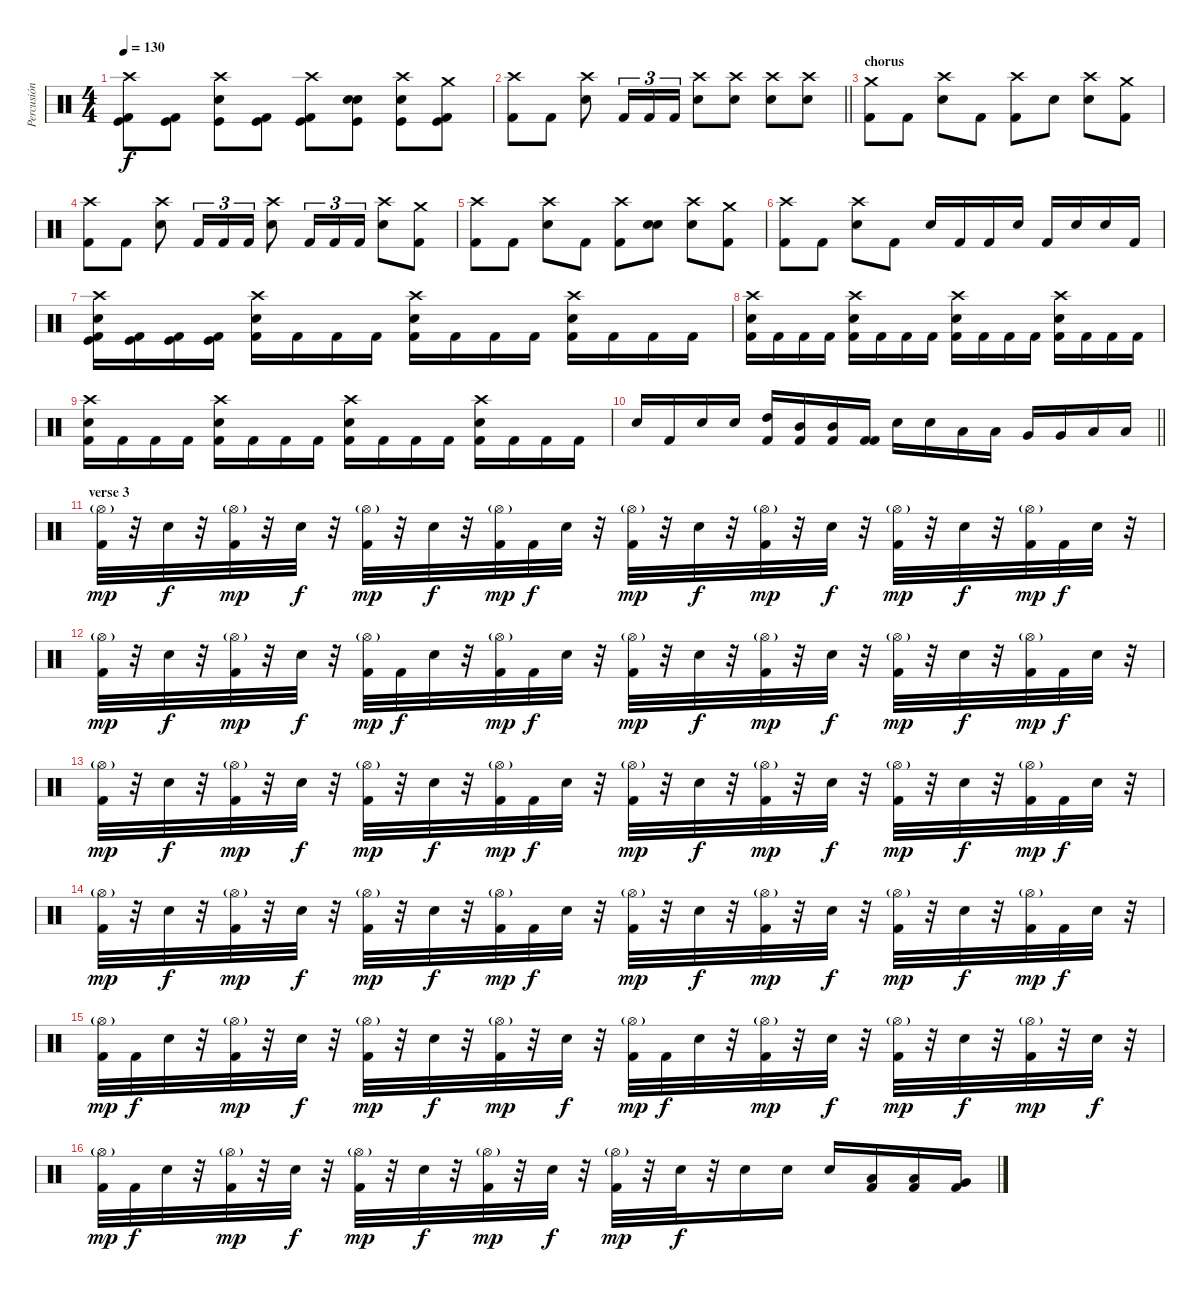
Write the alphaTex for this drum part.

\track ("Percusión" "Percusión") {instrument percussion}
\staff {score}
\articulation defaults
\ts (4 4)
\tempo 130
\clef neutral
\ks c
("Crash high (hit)" "Kick (hit)" "Kick (hit) 2").8{dy f} ("Kick (hit)" "Kick (hit) 2").8 ("Crash high (hit)" "Kick (hit)" "Electric Snare (hit)").8 ("Kick (hit)" "Kick (hit) 2").8 ("Crash high (hit)" "Kick (hit)" "Kick (hit) 2").8 ("Snare (hit)" "Kick (hit)" "Electric Snare (hit)").8 ("Crash high (hit)" "Kick (hit)" "Electric Snare (hit)").8 ("Crash medium (hit)" "Kick (hit)" "Kick (hit) 2").8 |
\barLineRight lightlight
("Crash high (hit)" "Kick (hit) 2").8 "Kick (hit) 2".8 ("Crash high (hit)" "Electric Snare (hit)").8 "Kick (hit) 2".16{tu (3 2)} "Kick (hit) 2".16{tu (3 2)} "Kick (hit) 2".16{tu (3 2)} ("Crash high (hit)" "Electric Snare (hit)").8 ("Crash high (hit)" "Electric Snare (hit)").8 ("Crash high (hit)" "Electric Snare (hit)").8 ("Crash high (hit)" "Electric Snare (hit)").8 |
\section ("" "chorus")
("Crash medium (hit)" "Kick (hit) 2").8 "Kick (hit) 2".8 ("Crash high (hit)" "Electric Snare (hit)").8 "Kick (hit) 2".8 ("Crash high (hit)" "Kick (hit) 2").8 "Electric Snare (hit)".8 ("Crash high (hit)" "Electric Snare (hit)").8 ("Crash medium (hit)" "Kick (hit) 2").8 |
("Crash high (hit)" "Kick (hit) 2").8 "Kick (hit) 2".8 ("Crash high (hit)" "Electric Snare (hit)").8 "Kick (hit) 2".16{tu (3 2)} "Kick (hit) 2".16{tu (3 2)} "Kick (hit) 2".16{tu (3 2)} ("Crash high (hit)" "Electric Snare (hit)").8 "Kick (hit) 2".16{tu (3 2)} "Kick (hit) 2".16{tu (3 2)} "Kick (hit) 2".16{tu (3 2)} ("Crash high (hit)" "Electric Snare (hit)").8 ("Crash medium (hit)" "Kick (hit) 2").8 |
("Crash high (hit)" "Kick (hit) 2").8 "Kick (hit) 2".8 ("Crash high (hit)" "Electric Snare (hit)").8 "Kick (hit) 2".8 ("Crash high (hit)" "Kick (hit) 2").8 ("Snare (hit)" "Electric Snare (hit)").8 ("Crash high (hit)" "Electric Snare (hit)").8 ("Crash medium (hit)" "Kick (hit) 2").8 |
("Crash high (hit)" "Kick (hit) 2").8 "Kick (hit) 2".8 ("Crash high (hit)" "Electric Snare (hit)").8 "Kick (hit) 2".8 "Electric Snare (hit)".16 "Kick (hit) 2".16 "Kick (hit) 2".16 "Electric Snare (hit)".16 "Kick (hit) 2".16 "Electric Snare (hit)".16 "Electric Snare (hit)".16 "Kick (hit) 2".16 |
("Crash high (hit)" "Electric Snare (hit)" "Kick (hit) 2" "Kick (hit)").16 ("Kick (hit) 2" "Kick (hit)").16 ("Kick (hit) 2" "Kick (hit)").16 ("Kick (hit) 2" "Kick (hit)").16 ("Crash high (hit)" "Electric Snare (hit)" "Kick (hit) 2").16 "Kick (hit) 2".16 "Kick (hit) 2".16 "Kick (hit) 2".16 ("Crash high (hit)" "Electric Snare (hit)" "Kick (hit) 2").16 "Kick (hit) 2".16 "Kick (hit) 2".16 "Kick (hit) 2".16 ("Crash high (hit)" "Electric Snare (hit)" "Kick (hit) 2").16 "Kick (hit) 2".16 "Kick (hit) 2".16 "Kick (hit) 2".16 |
("Crash high (hit)" "Electric Snare (hit)" "Kick (hit) 2").16 "Kick (hit) 2".16 "Kick (hit) 2".16 "Kick (hit) 2".16 ("Crash high (hit)" "Electric Snare (hit)" "Kick (hit) 2").16 "Kick (hit) 2".16 "Kick (hit) 2".16 "Kick (hit) 2".16 ("Crash high (hit)" "Electric Snare (hit)" "Kick (hit) 2").16 "Kick (hit) 2".16 "Kick (hit) 2".16 "Kick (hit) 2".16 ("Crash high (hit)" "Electric Snare (hit)" "Kick (hit) 2").16 "Kick (hit) 2".16 "Kick (hit) 2".16 "Kick (hit) 2".16 |
("Crash high (hit)" "Electric Snare (hit)" "Kick (hit) 2").16 "Kick (hit) 2".16 "Kick (hit) 2".16 "Kick (hit) 2".16 ("Crash high (hit)" "Electric Snare (hit)" "Kick (hit) 2").16 "Kick (hit) 2".16 "Kick (hit) 2".16 "Kick (hit) 2".16 ("Crash high (hit)" "Electric Snare (hit)" "Kick (hit) 2").16 "Kick (hit) 2".16 "Kick (hit) 2".16 "Kick (hit) 2".16 ("Crash high (hit)" "Electric Snare (hit)" "Kick (hit) 2").16 "Kick (hit) 2".16 "Kick (hit) 2".16 "Kick (hit) 2".16 |
\barLineRight lightlight "Electric Snare (hit)".16 "Kick (hit) 2".16 "Electric Snare (hit)".16 "Electric Snare (hit)".16
("High Tom (hit)" "Kick (hit) 2").16 ("Mid Tom (hit)" "Kick (hit) 2").16 ("Mid Tom (hit)" "Kick (hit) 2").16 ("Kick (hit) 2" "Kick (hit) 2").16 "Electric Snare (hit)".16 "Electric Snare (hit)".16 "Low Tom (hit)".16 "Low Tom (hit)".16 "Very Low Tom (hit)".16 "Very Low Tom (hit)".16 "Low Floor Tom (hit)".16 "Low Floor Tom (hit)".16 |
\section ("" "verse 3")
("Hi-Hat (open)"{g} "Kick (hit) 2").32{dy mp} r.32 "Electric Snare (hit)".32{dy f} r.32 ("Hi-Hat (open)"{g} "Kick (hit) 2").32{dy mp} r.32 "Electric Snare (hit)".32{dy f} r.32 ("Hi-Hat (open)"{g} "Kick (hit) 2").32{dy mp} r.32 "Electric Snare (hit)".32{dy f} r.32 ("Hi-Hat (open)"{g} "Kick (hit) 2").32{dy mp} "Kick (hit) 2".32{dy f} "Electric Snare (hit)".32 r.32 ("Hi-Hat (open)"{g} "Kick (hit) 2").32{dy mp} r.32 "Electric Snare (hit)".32{dy f} r.32 ("Hi-Hat (open)"{g} "Kick (hit) 2").32{dy mp} r.32 "Electric Snare (hit)".32{dy f} r.32 ("Hi-Hat (open)"{g} "Kick (hit) 2").32{dy mp} r.32 "Electric Snare (hit)".32{dy f} r.32 ("Hi-Hat (open)"{g} "Kick (hit) 2").32{dy mp} "Kick (hit) 2".32{dy f} "Electric Snare (hit)".32 r.32 |
("Hi-Hat (open)"{g} "Kick (hit) 2").32{dy mp} r.32 "Electric Snare (hit)".32{dy f} r.32 ("Hi-Hat (open)"{g} "Kick (hit) 2").32{dy mp} r.32 "Electric Snare (hit)".32{dy f} r.32 ("Hi-Hat (open)"{g} "Kick (hit) 2").32{dy mp} "Kick (hit) 2".32{dy f} "Electric Snare (hit)".32 r.32 ("Hi-Hat (open)"{g} "Kick (hit) 2").32{dy mp} "Kick (hit) 2".32{dy f} "Electric Snare (hit)".32 r.32 ("Hi-Hat (open)"{g} "Kick (hit) 2").32{dy mp} r.32 "Electric Snare (hit)".32{dy f} r.32 ("Hi-Hat (open)"{g} "Kick (hit) 2").32{dy mp} r.32 "Electric Snare (hit)".32{dy f} r.32 ("Hi-Hat (open)"{g} "Kick (hit) 2").32{dy mp} r.32 "Electric Snare (hit)".32{dy f} r.32 ("Hi-Hat (open)"{g} "Kick (hit) 2").32{dy mp} "Kick (hit) 2".32{dy f} "Electric Snare (hit)".32 r.32 |
("Hi-Hat (open)"{g} "Kick (hit) 2").32{dy mp} r.32 "Electric Snare (hit)".32{dy f} r.32 ("Hi-Hat (open)"{g} "Kick (hit) 2").32{dy mp} r.32 "Electric Snare (hit)".32{dy f} r.32 ("Hi-Hat (open)"{g} "Kick (hit) 2").32{dy mp} r.32 "Electric Snare (hit)".32{dy f} r.32 ("Hi-Hat (open)"{g} "Kick (hit) 2").32{dy mp} "Kick (hit) 2".32{dy f} "Electric Snare (hit)".32 r.32 ("Hi-Hat (open)"{g} "Kick (hit) 2").32{dy mp} r.32 "Electric Snare (hit)".32{dy f} r.32 ("Hi-Hat (open)"{g} "Kick (hit) 2").32{dy mp} r.32 "Electric Snare (hit)".32{dy f} r.32 ("Hi-Hat (open)"{g} "Kick (hit) 2").32{dy mp} r.32 "Electric Snare (hit)".32{dy f} r.32 ("Hi-Hat (open)"{g} "Kick (hit) 2").32{dy mp} "Kick (hit) 2".32{dy f} "Electric Snare (hit)".32 r.32 |
("Hi-Hat (open)"{g} "Kick (hit) 2").32{dy mp} r.32 "Electric Snare (hit)".32{dy f} r.32 ("Hi-Hat (open)"{g} "Kick (hit) 2").32{dy mp} r.32 "Electric Snare (hit)".32{dy f} r.32 ("Hi-Hat (open)"{g} "Kick (hit) 2").32{dy mp} r.32 "Electric Snare (hit)".32{dy f} r.32 ("Hi-Hat (open)"{g} "Kick (hit) 2").32{dy mp} "Kick (hit) 2".32{dy f} "Electric Snare (hit)".32 r.32 ("Hi-Hat (open)"{g} "Kick (hit) 2").32{dy mp} r.32 "Electric Snare (hit)".32{dy f} r.32 ("Hi-Hat (open)"{g} "Kick (hit) 2").32{dy mp} r.32 "Electric Snare (hit)".32{dy f} r.32 ("Hi-Hat (open)"{g} "Kick (hit) 2").32{dy mp} r.32 "Electric Snare (hit)".32{dy f} r.32 ("Hi-Hat (open)"{g} "Kick (hit) 2").32{dy mp} "Kick (hit) 2".32{dy f} "Electric Snare (hit)".32 r.32 |
("Hi-Hat (open)"{g} "Kick (hit) 2").32{dy mp} "Kick (hit) 2".32{dy f} "Electric Snare (hit)".32 r.32 ("Hi-Hat (open)"{g} "Kick (hit) 2").32{dy mp} r.32 "Electric Snare (hit)".32{dy f} r.32 ("Hi-Hat (open)"{g} "Kick (hit) 2").32{dy mp} r.32 "Electric Snare (hit)".32{dy f} r.32 ("Hi-Hat (open)"{g} "Kick (hit) 2").32{dy mp} r.32 "Electric Snare (hit)".32{dy f} r.32 ("Hi-Hat (open)"{g} "Kick (hit) 2").32{dy mp} "Kick (hit) 2".32{dy f} "Electric Snare (hit)".32 r.32 ("Hi-Hat (open)"{g} "Kick (hit) 2").32{dy mp} r.32 "Electric Snare (hit)".32{dy f} r.32 ("Hi-Hat (open)"{g} "Kick (hit) 2").32{dy mp} r.32 "Electric Snare (hit)".32{dy f} r.32 ("Hi-Hat (open)"{g} "Kick (hit) 2").32{dy mp} r.32 "Electric Snare (hit)".32{dy f} r.32 |
("Hi-Hat (open)"{g} "Kick (hit) 2").32{dy mp} "Kick (hit) 2".32{dy f} "Electric Snare (hit)".32 r.32 ("Hi-Hat (open)"{g} "Kick (hit) 2").32{dy mp} r.32 "Electric Snare (hit)".32{dy f} r.32 ("Hi-Hat (open)"{g} "Kick (hit) 2").32{dy mp} r.32 "Electric Snare (hit)".32{dy f} r.32 ("Hi-Hat (open)"{g} "Kick (hit) 2").32{dy mp} r.32 "Electric Snare (hit)".32{dy f} r.32 ("Hi-Hat (open)"{g} "Kick (hit) 2").32{dy mp} r.32 "Electric Snare (hit)".32{dy f} r.32 "Electric Snare (hit)".16 "Electric Snare (hit)".16 "Electric Snare (hit)".16 ("Low Tom (hit)" "Kick (hit) 2").16 ("Low Tom (hit)" "Kick (hit) 2").16 ("Very Low Tom (hit)" "Kick (hit) 2").16
